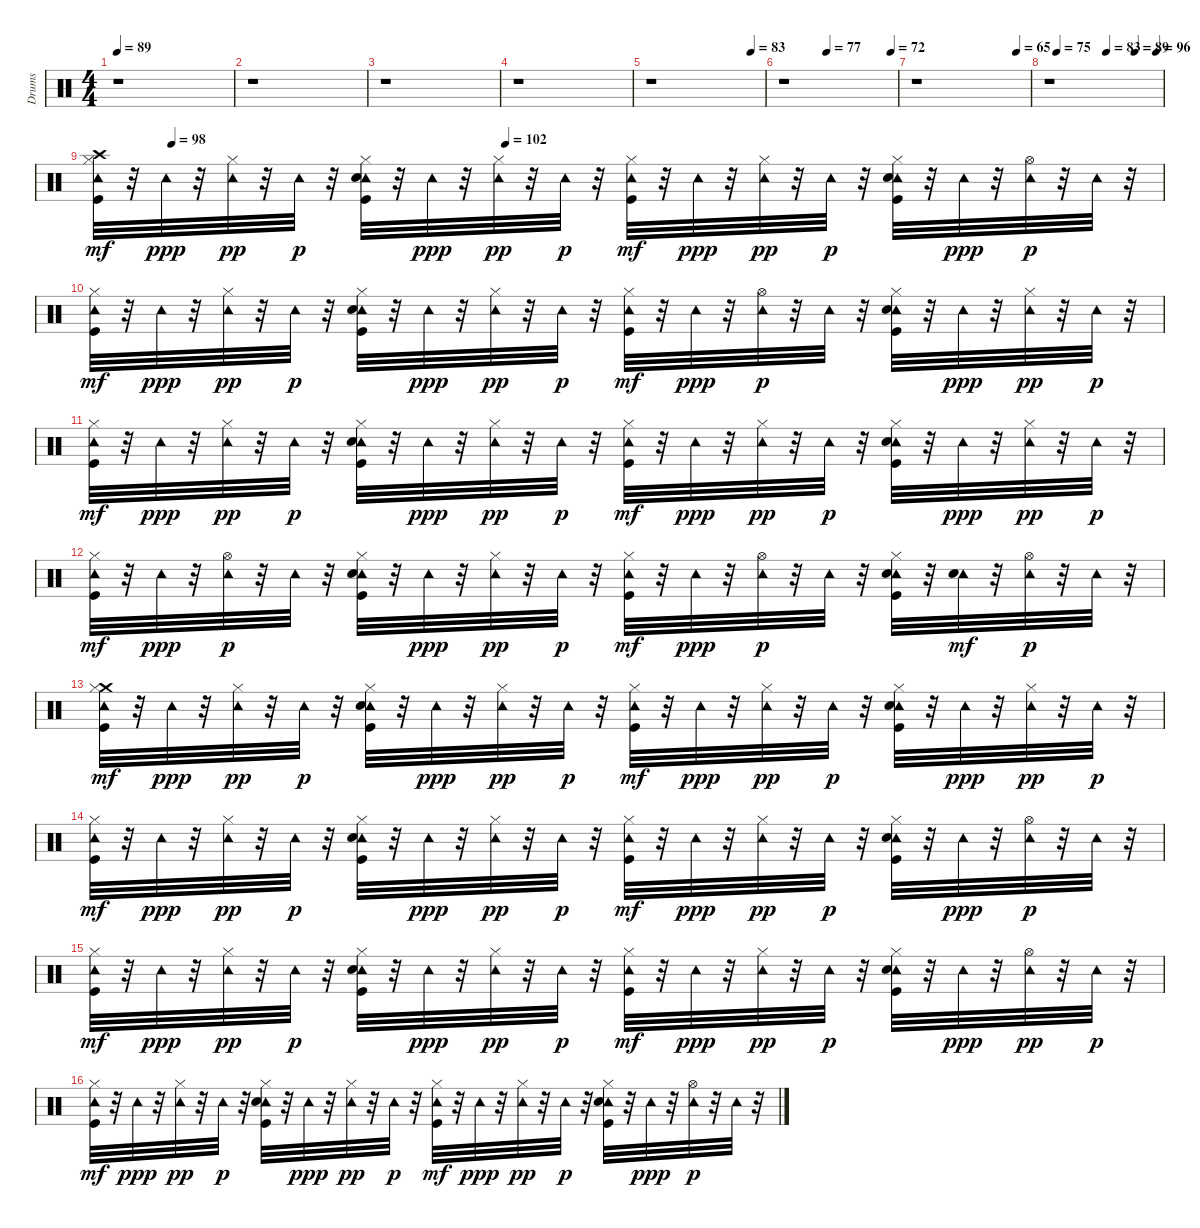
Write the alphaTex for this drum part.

\track ("Drums" "Drums") {instrument percussion}
\staff {score}
\articulation defaults
\ts (4 4)
\tempo 89
\clef neutral
\ks c
r.1{dy p} |
r.1 |
r.1 |
r.1 |
\tempo (83 0.8854166666666666)
r.1 |
\tempo (77 0.3854166666666667)
\tempo (72 0.9479166666666666)
r.1 |
\tempo (65 0.8854166666666666)
r.1 |
\tempo (75 0.07291666666666667)
\tempo (83 0.5104166666666666)
\tempo (89 0.7604166666666666)
\tempo (96 0.9479166666666666)
r.1 |
\tempo (98 0.07291666666666667)
\tempo (102 0.3854166666666667)
("Crash high (hit)" "Tambourine (hit)" "Hi-Hat (closed)" "Kick (hit)").32{dy mf} r.32 "Tambourine (hit)".32{dy ppp} r.32 ("Tambourine (hit)" "Hi-Hat (closed)").32{dy pp} r.32 "Tambourine (hit)".32{dy p} r.32 ("Tambourine (hit)" "Hi-Hat (closed)" "Electric Snare (hit)" "Kick (hit)").32 r.32 "Tambourine (hit)".32{dy ppp} r.32 ("Tambourine (hit)" "Hi-Hat (closed)").32{dy pp} r.32 "Tambourine (hit)".32{dy p} r.32 ("Tambourine (hit)" "Hi-Hat (closed)" "Kick (hit)").32{dy mf} r.32 "Tambourine (hit)".32{dy ppp} r.32 ("Tambourine (hit)" "Hi-Hat (closed)").32{dy pp} r.32 "Tambourine (hit)".32{dy p} r.32 ("Tambourine (hit)" "Hi-Hat (closed)" "Electric Snare (hit)" "Kick (hit)").32 r.32 "Tambourine (hit)".32{dy ppp} r.32 ("Tambourine (hit)" "Hi-Hat (open)").32{dy p} r.32 "Tambourine (hit)".32 r.32 |
("Tambourine (hit)" "Hi-Hat (closed)" "Kick (hit)").32{dy mf} r.32 "Tambourine (hit)".32{dy ppp} r.32 ("Tambourine (hit)" "Hi-Hat (closed)").32{dy pp} r.32 "Tambourine (hit)".32{dy p} r.32 ("Tambourine (hit)" "Hi-Hat (closed)" "Electric Snare (hit)" "Kick (hit)").32 r.32 "Tambourine (hit)".32{dy ppp} r.32 ("Tambourine (hit)" "Hi-Hat (closed)").32{dy pp} r.32 "Tambourine (hit)".32{dy p} r.32 ("Tambourine (hit)" "Hi-Hat (closed)" "Kick (hit)").32{dy mf} r.32 "Tambourine (hit)".32{dy ppp} r.32 ("Tambourine (hit)" "Hi-Hat (open)").32{dy p} r.32 "Tambourine (hit)".32 r.32 ("Tambourine (hit)" "Hi-Hat (closed)" "Electric Snare (hit)" "Kick (hit)").32 r.32 "Tambourine (hit)".32{dy ppp} r.32 ("Tambourine (hit)" "Hi-Hat (closed)").32{dy pp} r.32 "Tambourine (hit)".32{dy p} r.32 |
("Tambourine (hit)" "Hi-Hat (closed)" "Kick (hit)").32{dy mf} r.32 "Tambourine (hit)".32{dy ppp} r.32 ("Tambourine (hit)" "Hi-Hat (closed)").32{dy pp} r.32 "Tambourine (hit)".32{dy p} r.32 ("Tambourine (hit)" "Hi-Hat (closed)" "Electric Snare (hit)" "Kick (hit)").32 r.32 "Tambourine (hit)".32{dy ppp} r.32 ("Tambourine (hit)" "Hi-Hat (closed)").32{dy pp} r.32 "Tambourine (hit)".32{dy p} r.32 ("Tambourine (hit)" "Hi-Hat (closed)" "Kick (hit)").32{dy mf} r.32 "Tambourine (hit)".32{dy ppp} r.32 ("Tambourine (hit)" "Hi-Hat (closed)").32{dy pp} r.32 "Tambourine (hit)".32{dy p} r.32 ("Tambourine (hit)" "Hi-Hat (closed)" "Electric Snare (hit)" "Kick (hit)").32 r.32 "Tambourine (hit)".32{dy ppp} r.32 ("Tambourine (hit)" "Hi-Hat (closed)").32{dy pp} r.32 "Tambourine (hit)".32{dy p} r.32 |
("Tambourine (hit)" "Hi-Hat (closed)" "Kick (hit)").32{dy mf} r.32 "Tambourine (hit)".32{dy ppp} r.32 ("Tambourine (hit)" "Hi-Hat (open)").32{dy p} r.32 "Tambourine (hit)".32 r.32 ("Tambourine (hit)" "Hi-Hat (closed)" "Electric Snare (hit)" "Kick (hit)").32 r.32 "Tambourine (hit)".32{dy ppp} r.32 ("Tambourine (hit)" "Hi-Hat (closed)").32{dy pp} r.32 "Tambourine (hit)".32{dy p} r.32 ("Tambourine (hit)" "Hi-Hat (closed)" "Kick (hit)").32{dy mf} r.32 "Tambourine (hit)".32{dy ppp} r.32 ("Tambourine (hit)" "Hi-Hat (open)").32{dy p} r.32 "Tambourine (hit)".32 r.32 ("Tambourine (hit)" "Hi-Hat (closed)" "Electric Snare (hit)" "Kick (hit)").32 r.32 ("Tambourine (hit)" "Electric Snare (hit)").32{dy mf} r.32 ("Tambourine (hit)" "Hi-Hat (open)").32{dy p} r.32 "Tambourine (hit)".32 r.32 |
("Crash medium (hit)" "Tambourine (hit)" "Hi-Hat (closed)" "Kick (hit)").32{dy mf} r.32 "Tambourine (hit)".32{dy ppp} r.32 ("Tambourine (hit)" "Hi-Hat (closed)").32{dy pp} r.32 "Tambourine (hit)".32{dy p} r.32 ("Tambourine (hit)" "Hi-Hat (closed)" "Electric Snare (hit)" "Kick (hit)").32 r.32 "Tambourine (hit)".32{dy ppp} r.32 ("Tambourine (hit)" "Hi-Hat (closed)").32{dy pp} r.32 "Tambourine (hit)".32{dy p} r.32 ("Tambourine (hit)" "Hi-Hat (closed)" "Kick (hit)").32{dy mf} r.32 "Tambourine (hit)".32{dy ppp} r.32 ("Tambourine (hit)" "Hi-Hat (closed)").32{dy pp} r.32 "Tambourine (hit)".32{dy p} r.32 ("Tambourine (hit)" "Hi-Hat (closed)" "Electric Snare (hit)" "Kick (hit)").32 r.32 "Tambourine (hit)".32{dy ppp} r.32 ("Tambourine (hit)" "Hi-Hat (closed)").32{dy pp} r.32 "Tambourine (hit)".32{dy p} r.32 |
("Tambourine (hit)" "Hi-Hat (closed)" "Kick (hit)").32{dy mf} r.32 "Tambourine (hit)".32{dy ppp} r.32 ("Tambourine (hit)" "Hi-Hat (closed)").32{dy pp} r.32 "Tambourine (hit)".32{dy p} r.32 ("Tambourine (hit)" "Hi-Hat (closed)" "Electric Snare (hit)" "Kick (hit)").32 r.32 "Tambourine (hit)".32{dy ppp} r.32 ("Tambourine (hit)" "Hi-Hat (closed)").32{dy pp} r.32 "Tambourine (hit)".32{dy p} r.32 ("Tambourine (hit)" "Hi-Hat (closed)" "Kick (hit)").32{dy mf} r.32 "Tambourine (hit)".32{dy ppp} r.32 ("Tambourine (hit)" "Hi-Hat (closed)").32{dy pp} r.32 "Tambourine (hit)".32{dy p} r.32 ("Tambourine (hit)" "Hi-Hat (closed)" "Electric Snare (hit)" "Kick (hit)").32 r.32 "Tambourine (hit)".32{dy ppp} r.32 ("Tambourine (hit)" "Hi-Hat (open)").32{dy p} r.32 "Tambourine (hit)".32 r.32 |
("Tambourine (hit)" "Hi-Hat (closed)" "Kick (hit)").32{dy mf} r.32 "Tambourine (hit)".32{dy ppp} r.32 ("Tambourine (hit)" "Hi-Hat (closed)").32{dy pp} r.32 "Tambourine (hit)".32{dy p} r.32 ("Tambourine (hit)" "Hi-Hat (closed)" "Electric Snare (hit)" "Kick (hit)").32 r.32 "Tambourine (hit)".32{dy ppp} r.32 ("Tambourine (hit)" "Hi-Hat (closed)").32{dy pp} r.32 "Tambourine (hit)".32{dy p} r.32 ("Tambourine (hit)" "Hi-Hat (closed)" "Kick (hit)").32{dy mf} r.32 "Tambourine (hit)".32{dy ppp} r.32 ("Tambourine (hit)" "Hi-Hat (closed)").32{dy pp} r.32 "Tambourine (hit)".32{dy p} r.32 ("Tambourine (hit)" "Hi-Hat (closed)" "Electric Snare (hit)" "Kick (hit)").32 r.32 "Tambourine (hit)".32{dy ppp} r.32 ("Tambourine (hit)" "Hi-Hat (open)").32{dy pp} r.32 "Tambourine (hit)".32{dy p} r.32 |
("Tambourine (hit)" "Hi-Hat (closed)" "Kick (hit)").32{dy mf} r.32 "Tambourine (hit)".32{dy ppp} r.32 ("Tambourine (hit)" "Hi-Hat (closed)").32{dy pp} r.32 "Tambourine (hit)".32{dy p} r.32 ("Tambourine (hit)" "Hi-Hat (closed)" "Electric Snare (hit)" "Kick (hit)").32 r.32 "Tambourine (hit)".32{dy ppp} r.32 ("Tambourine (hit)" "Hi-Hat (closed)").32{dy pp} r.32 "Tambourine (hit)".32{dy p} r.32 ("Tambourine (hit)" "Hi-Hat (closed)" "Kick (hit)").32{dy mf} r.32 "Tambourine (hit)".32{dy ppp} r.32 ("Tambourine (hit)" "Hi-Hat (closed)").32{dy pp} r.32 "Tambourine (hit)".32{dy p} r.32 ("Tambourine (hit)" "Hi-Hat (closed)" "Electric Snare (hit)" "Kick (hit)").32 r.32 "Tambourine (hit)".32{dy ppp} r.32 ("Tambourine (hit)" "Hi-Hat (open)").32{dy p} r.32 "Tambourine (hit)".32 r.32
